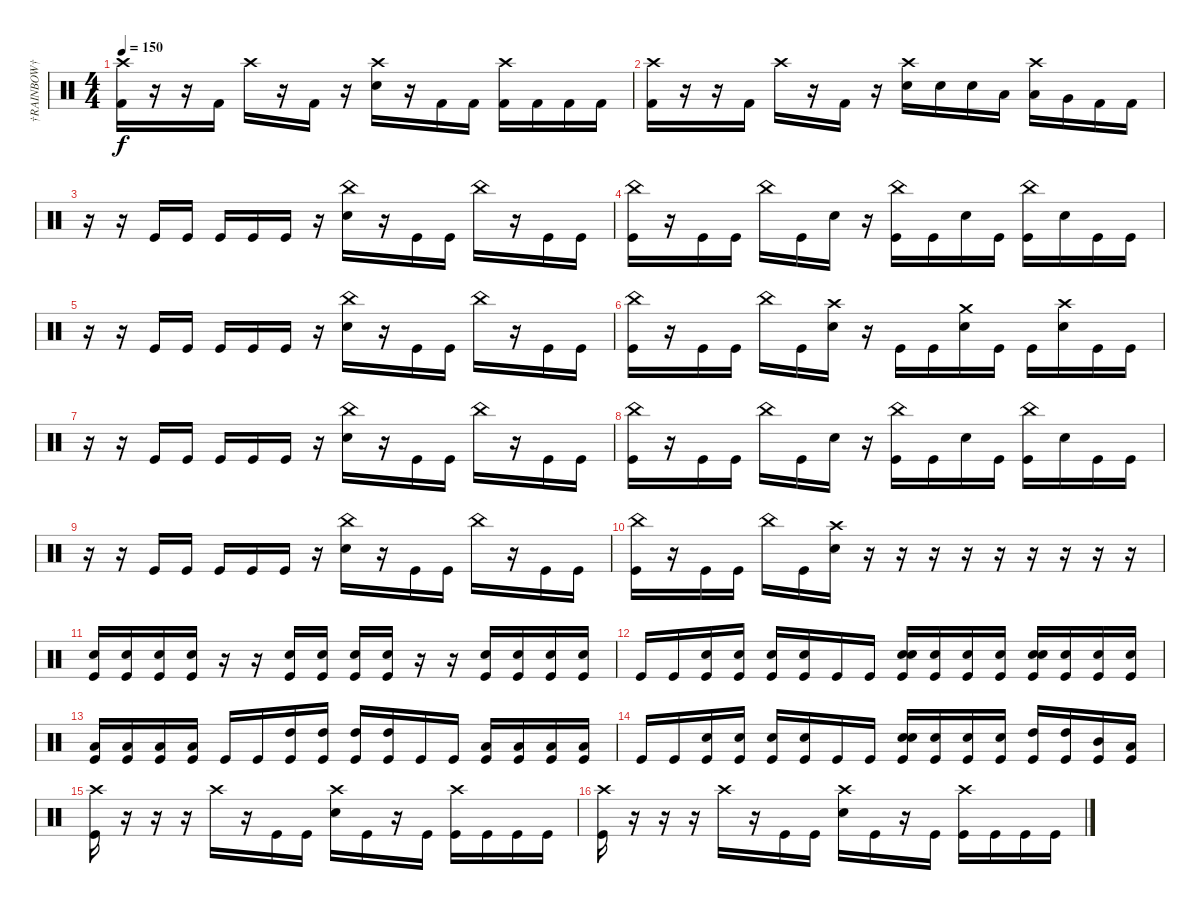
\track ("†RAINBOW†" "†RAINBOW†") {instrument percussion}
\staff {score}
\articulation defaults
\ts (4 4)
\tempo 150
\clef neutral
\ks c
("Crash high (hit)" "Kick (hit) 2").16{dy f} r.16 r.16 "Kick (hit) 2".16 "Crash high (hit)".16 r.16 "Kick (hit) 2".16 r.16 ("Crash high (hit)" "Electric Snare (hit)").16 r.16 "Kick (hit) 2".16 "Kick (hit) 2".16 ("Crash high (hit)" "Kick (hit) 2").16 "Kick (hit) 2".16 "Kick (hit) 2".16 "Kick (hit) 2".16 |
("Crash high (hit)" "Kick (hit) 2").16 r.16 r.16 "Kick (hit) 2".16 "Crash high (hit)".16 r.16 "Kick (hit) 2".16 r.16 ("Crash high (hit)" "Electric Snare (hit)").16 "Electric Snare (hit)".16 "Electric Snare (hit)".16 "Low Tom (hit)".16 ("Crash high (hit)" "Low Tom (hit)").16 "Very Low Tom (hit)".16 "Kick (hit) 2".16 "Kick (hit) 2".16 |
r.16 r.16 "Kick (hit)".16 "Kick (hit)".16 "Kick (hit)".16 "Kick (hit)".16 "Kick (hit)".16 r.16 ("China (hit)" "Electric Snare (hit)").16 r.16 "Kick (hit)".16 "Kick (hit)".16 "China (hit)".16 r.16 "Kick (hit)".16 "Kick (hit)".16 |
("China (hit)" "Kick (hit)").16 r.16 "Kick (hit)".16 "Kick (hit)".16 "China (hit)".16 "Kick (hit)".16 "Electric Snare (hit)".16 r.16 ("China (hit)" "Kick (hit)").16 "Kick (hit)".16 "Electric Snare (hit)".16 "Kick (hit)".16 ("China (hit)" "Kick (hit)").16 "Electric Snare (hit)".16 "Kick (hit)".16 "Kick (hit)".16 |
r.16 r.16 "Kick (hit)".16 "Kick (hit)".16 "Kick (hit)".16 "Kick (hit)".16 "Kick (hit)".16 r.16 ("China (hit)" "Electric Snare (hit)").16 r.16 "Kick (hit)".16 "Kick (hit)".16 "China (hit)".16 r.16 "Kick (hit)".16 "Kick (hit)".16 |
("China (hit)" "Kick (hit)").16 r.16 "Kick (hit)".16 "Kick (hit)".16 "China (hit)".16 "Kick (hit)".16 ("Crash high (hit)" "Electric Snare (hit)").16 r.16 "Kick (hit)".16 "Kick (hit)".16 ("Crash medium (hit)" "Electric Snare (hit)").16 "Kick (hit)".16 "Kick (hit)".16 ("Crash high (hit)" "Electric Snare (hit)").16 "Kick (hit)".16 "Kick (hit)".16 |
r.16 r.16 "Kick (hit)".16 "Kick (hit)".16 "Kick (hit)".16 "Kick (hit)".16 "Kick (hit)".16 r.16 ("China (hit)" "Electric Snare (hit)").16 r.16 "Kick (hit)".16 "Kick (hit)".16 "China (hit)".16 r.16 "Kick (hit)".16 "Kick (hit)".16 |
("China (hit)" "Kick (hit)").16 r.16 "Kick (hit)".16 "Kick (hit)".16 "China (hit)".16 "Kick (hit)".16 "Electric Snare (hit)".16 r.16 ("China (hit)" "Kick (hit)").16 "Kick (hit)".16 "Electric Snare (hit)".16 "Kick (hit)".16 ("China (hit)" "Kick (hit)").16 "Electric Snare (hit)".16 "Kick (hit)".16 "Kick (hit)".16 |
r.16 r.16 "Kick (hit)".16 "Kick (hit)".16 "Kick (hit)".16 "Kick (hit)".16 "Kick (hit)".16 r.16 ("China (hit)" "Electric Snare (hit)").16 r.16 "Kick (hit)".16 "Kick (hit)".16 "China (hit)".16 r.16 "Kick (hit)".16 "Kick (hit)".16 |
("China (hit)" "Kick (hit)").16 r.16 "Kick (hit)".16 "Kick (hit)".16 "China (hit)".16 "Kick (hit)".16 ("Crash high (hit)" "Electric Snare (hit)").16 r.16 r.16 r.16 r.16 r.16 r.16 r.16 r.16 r.16 |
("Electric Snare (hit)" "Kick (hit)").16 ("Electric Snare (hit)" "Kick (hit)").16 ("Electric Snare (hit)" "Kick (hit)").16 ("Electric Snare (hit)" "Kick (hit)").16 r.16 r.16 ("Electric Snare (hit)" "Kick (hit)").16 ("Electric Snare (hit)" "Kick (hit)").16 ("Electric Snare (hit)" "Kick (hit)").16 ("Electric Snare (hit)" "Kick (hit)").16 r.16 r.16 ("Electric Snare (hit)" "Kick (hit)").16 ("Electric Snare (hit)" "Kick (hit)").16 ("Electric Snare (hit)" "Kick (hit)").16 ("Electric Snare (hit)" "Kick (hit)").16 |
"Kick (hit)".16 "Kick (hit)".16 ("Electric Snare (hit)" "Kick (hit)").16 ("Electric Snare (hit)" "Kick (hit)").16 ("Electric Snare (hit)" "Kick (hit)").16 ("Electric Snare (hit)" "Kick (hit)").16 "Kick (hit)".16 "Kick (hit)".16 ("Electric Snare (hit)" "Electric Snare (hit)" "Kick (hit)").16 ("Electric Snare (hit)" "Kick (hit)").16 ("Electric Snare (hit)" "Kick (hit)").16 ("Electric Snare (hit)" "Kick (hit)").16 ("Electric Snare (hit)" "Electric Snare (hit)" "Kick (hit)").16 ("Electric Snare (hit)" "Kick (hit)").16 ("Electric Snare (hit)" "Kick (hit)").16 ("Electric Snare (hit)" "Kick (hit)").16 |
("Low Tom (hit)" "Kick (hit)").16 ("Low Tom (hit)" "Kick (hit)").16 ("Low Tom (hit)" "Kick (hit)").16 ("Low Tom (hit)" "Kick (hit)").16 "Kick (hit)".16 "Kick (hit)".16 ("High Tom (hit)" "Kick (hit)").16 ("High Tom (hit)" "Kick (hit)").16 ("High Tom (hit)" "Kick (hit)").16 ("High Tom (hit)" "Kick (hit)").16 "Kick (hit)".16 "Kick (hit)".16 ("Low Tom (hit)" "Kick (hit)").16 ("Low Tom (hit)" "Kick (hit)").16 ("Low Tom (hit)" "Kick (hit)").16 ("Low Tom (hit)" "Kick (hit)").16 |
"Kick (hit)".16 "Kick (hit)".16 ("Electric Snare (hit)" "Kick (hit)").16 ("Electric Snare (hit)" "Kick (hit)").16 ("Electric Snare (hit)" "Kick (hit)").16 ("Electric Snare (hit)" "Kick (hit)").16 "Kick (hit)".16 "Kick (hit)".16 ("Electric Snare (hit)" "Electric Snare (hit)" "Kick (hit)").16 ("Electric Snare (hit)" "Kick (hit)").16 ("Electric Snare (hit)" "Kick (hit)").16 ("Electric Snare (hit)" "Kick (hit)").16 ("High Tom (hit)" "Kick (hit)").16 ("High Tom (hit)" "Kick (hit)").16 ("Mid Tom (hit)" "Kick (hit)").16 ("Low Tom (hit)" "Kick (hit)").16 |
("Crash high (hit)" "Kick (hit)").16 r.16 r.16 r.16 "Crash high (hit)".16 r.16 "Kick (hit)".16 "Kick (hit)".16 ("Crash high (hit)" "Electric Snare (hit)").16 "Kick (hit)".16 r.16 "Kick (hit)".16 ("Crash high (hit)" "Kick (hit)").16 "Kick (hit)".16 "Kick (hit)".16 "Kick (hit)".16 |
("Crash high (hit)" "Kick (hit)").16 r.16 r.16 r.16 "Crash high (hit)".16 r.16 "Kick (hit)".16 "Kick (hit)".16 ("Crash high (hit)" "Electric Snare (hit)").16 "Kick (hit)".16 r.16 "Kick (hit)".16 ("Crash high (hit)" "Kick (hit)").16 "Kick (hit)".16 "Kick (hit)".16 "Kick (hit)".16
